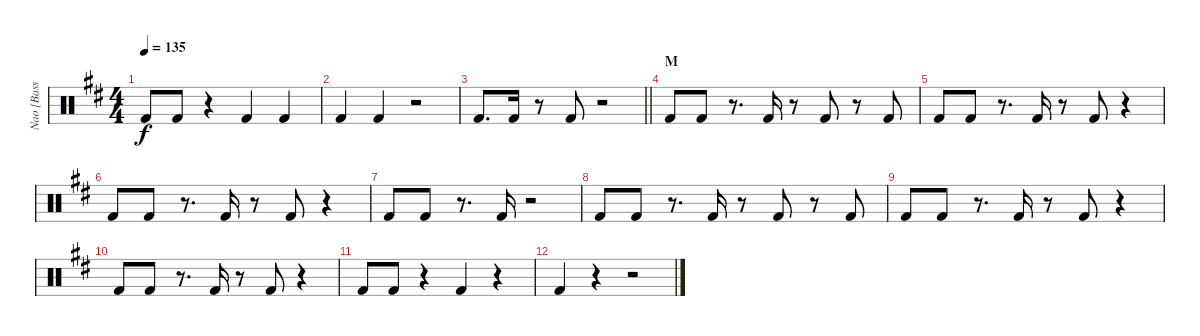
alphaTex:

\track ("Nao [Bass Drum]" "Nao [Bass ") {instrument percussion}
\staff {score}
\articulation defaults
\ts (4 4)
\tempo 135
\clef neutral
\ks d "Kick (hit) 2".8{dy f} "Kick (hit) 2".8
r.4 "Kick (hit) 2".4 "Kick (hit) 2".4 |
"Kick (hit) 2".4 "Kick (hit) 2".4 r.2 |
\barLineRight lightlight "Kick (hit) 2".8{d} "Kick (hit) 2".16
r.8 "Kick (hit) 2".8 r.2 |
\section ("" "M")
"Kick (hit) 2".8 "Kick (hit) 2".8 r.8{d} "Kick (hit) 2".16 r.8 "Kick (hit) 2".8 r.8 "Kick (hit) 2".8 |
"Kick (hit) 2".8 "Kick (hit) 2".8 r.8{d} "Kick (hit) 2".16 r.8 "Kick (hit) 2".8 r.4 |
"Kick (hit) 2".8 "Kick (hit) 2".8 r.8{d} "Kick (hit) 2".16 r.8 "Kick (hit) 2".8 r.4 |
"Kick (hit) 2".8 "Kick (hit) 2".8 r.8{d} "Kick (hit) 2".16 r.2 |
"Kick (hit) 2".8 "Kick (hit) 2".8 r.8{d} "Kick (hit) 2".16 r.8 "Kick (hit) 2".8 r.8 "Kick (hit) 2".8 |
"Kick (hit) 2".8 "Kick (hit) 2".8 r.8{d} "Kick (hit) 2".16 r.8 "Kick (hit) 2".8 r.4 |
"Kick (hit) 2".8 "Kick (hit) 2".8 r.8{d} "Kick (hit) 2".16 r.8 "Kick (hit) 2".8 r.4 |
"Kick (hit) 2".8 "Kick (hit) 2".8 r.4 "Kick (hit) 2".4 r.4 |
"Kick (hit) 2".4 r.4 r.2
